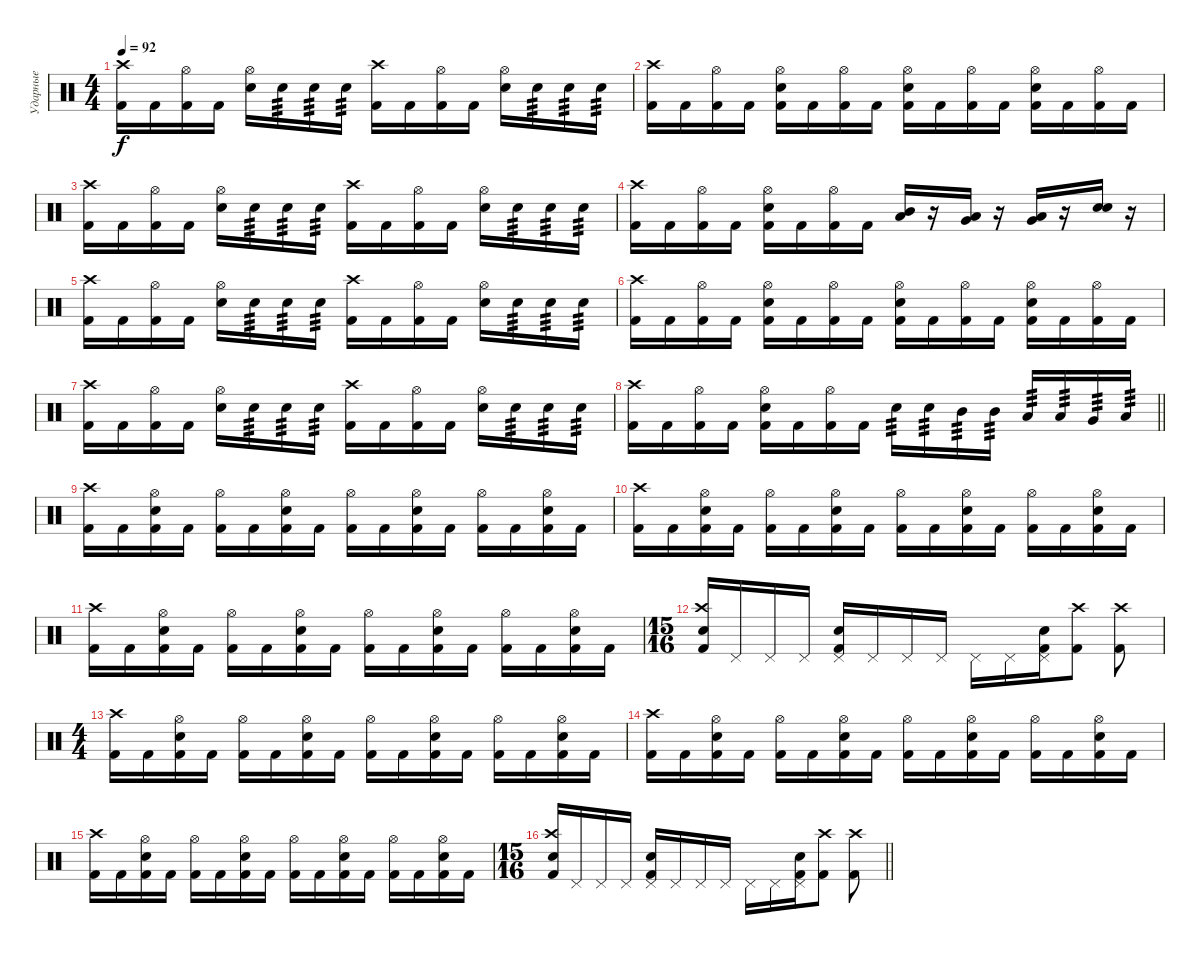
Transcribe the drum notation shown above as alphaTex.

\track ("Ударные" "Ударные") {instrument percussion}
\staff {score}
\articulation defaults
\ts (4 4)
\section ("" "")
\tempo 92
\clef neutral
\ks c
("Kick (hit) 2" "Crash high (hit)").16{dy f} "Kick (hit) 2".16 ("Kick (hit) 2" "Hi-Hat (open)").16 "Kick (hit) 2".16 ("Electric Snare (hit)" "Hi-Hat (open)").16 "Electric Snare (hit)".16{tp 3} "Electric Snare (hit)".16{tp 3} "Electric Snare (hit)".16{tp 3} ("Kick (hit) 2" "Crash high (hit)").16 "Kick (hit) 2".16 ("Kick (hit) 2" "Hi-Hat (open)").16 "Kick (hit) 2".16 ("Electric Snare (hit)" "Hi-Hat (open)").16 "Electric Snare (hit)".16{tp 3} "Electric Snare (hit)".16{tp 3} "Electric Snare (hit)".16{tp 3} |
("Kick (hit) 2" "Crash high (hit)").16 "Kick (hit) 2".16 ("Kick (hit) 2" "Hi-Hat (open)").16 "Kick (hit) 2".16 ("Kick (hit) 2" "Hi-Hat (open)" "Electric Snare (hit)").16 "Kick (hit) 2".16 ("Kick (hit) 2" "Hi-Hat (open)").16 "Kick (hit) 2".16 ("Kick (hit) 2" "Hi-Hat (open)" "Electric Snare (hit)").16 "Kick (hit) 2".16 ("Kick (hit) 2" "Hi-Hat (open)").16 "Kick (hit) 2".16 ("Kick (hit) 2" "Hi-Hat (open)" "Electric Snare (hit)").16 "Kick (hit) 2".16 ("Kick (hit) 2" "Hi-Hat (open)").16 "Kick (hit) 2".16 |
("Kick (hit) 2" "Crash high (hit)").16 "Kick (hit) 2".16 ("Kick (hit) 2" "Hi-Hat (open)").16 "Kick (hit) 2".16 ("Electric Snare (hit)" "Hi-Hat (open)").16 "Electric Snare (hit)".16{tp 3} "Electric Snare (hit)".16{tp 3} "Electric Snare (hit)".16{tp 3} ("Kick (hit) 2" "Crash high (hit)").16 "Kick (hit) 2".16 ("Kick (hit) 2" "Hi-Hat (open)").16 "Kick (hit) 2".16 ("Electric Snare (hit)" "Hi-Hat (open)").16 "Electric Snare (hit)".16{tp 3} "Electric Snare (hit)".16{tp 3} "Electric Snare (hit)".16{tp 3} |
("Kick (hit) 2" "Crash high (hit)").16 "Kick (hit) 2".16 ("Kick (hit) 2" "Hi-Hat (open)").16 "Kick (hit) 2".16 ("Kick (hit) 2" "Hi-Hat (open)" "Electric Snare (hit)").16 "Kick (hit) 2".16 ("Kick (hit) 2" "Hi-Hat (open)").16 "Kick (hit) 2".16 ("Mid Tom (hit)" "Low Tom (hit)").16{bd 120} r.16 ("Low Tom (hit)" "Very Low Tom (hit)").16{bd 120} r.16 ("Very Low Tom (hit)" "Low Floor Tom (hit)").16{bd 120} r.16 ("Electric Snare (hit)" "Electric Snare (hit)").16{bd 120} r.16 |
("Kick (hit) 2" "Crash high (hit)").16 "Kick (hit) 2".16 ("Kick (hit) 2" "Hi-Hat (open)").16 "Kick (hit) 2".16 ("Electric Snare (hit)" "Hi-Hat (open)").16 "Electric Snare (hit)".16{tp 3} "Electric Snare (hit)".16{tp 3} "Electric Snare (hit)".16{tp 3} ("Kick (hit) 2" "Crash high (hit)").16 "Kick (hit) 2".16 ("Kick (hit) 2" "Hi-Hat (open)").16 "Kick (hit) 2".16 ("Electric Snare (hit)" "Hi-Hat (open)").16 "Electric Snare (hit)".16{tp 3} "Electric Snare (hit)".16{tp 3} "Electric Snare (hit)".16{tp 3} |
("Kick (hit) 2" "Crash high (hit)").16 "Kick (hit) 2".16 ("Kick (hit) 2" "Hi-Hat (open)").16 "Kick (hit) 2".16 ("Kick (hit) 2" "Hi-Hat (open)" "Electric Snare (hit)").16 "Kick (hit) 2".16 ("Kick (hit) 2" "Hi-Hat (open)").16 "Kick (hit) 2".16 ("Kick (hit) 2" "Hi-Hat (open)" "Electric Snare (hit)").16 "Kick (hit) 2".16 ("Kick (hit) 2" "Hi-Hat (open)").16 "Kick (hit) 2".16 ("Kick (hit) 2" "Hi-Hat (open)" "Electric Snare (hit)").16 "Kick (hit) 2".16 ("Kick (hit) 2" "Hi-Hat (open)").16 "Kick (hit) 2".16 |
("Kick (hit) 2" "Crash high (hit)").16 "Kick (hit) 2".16 ("Kick (hit) 2" "Hi-Hat (open)").16 "Kick (hit) 2".16 ("Electric Snare (hit)" "Hi-Hat (open)").16 "Electric Snare (hit)".16{tp 3} "Electric Snare (hit)".16{tp 3} "Electric Snare (hit)".16{tp 3} ("Kick (hit) 2" "Crash high (hit)").16 "Kick (hit) 2".16 ("Kick (hit) 2" "Hi-Hat (open)").16 "Kick (hit) 2".16 ("Electric Snare (hit)" "Hi-Hat (open)").16 "Electric Snare (hit)".16{tp 3} "Electric Snare (hit)".16{tp 3} "Electric Snare (hit)".16{tp 3} |
\barLineRight lightlight
("Kick (hit) 2" "Crash high (hit)").16 "Kick (hit) 2".16 ("Kick (hit) 2" "Hi-Hat (open)").16 "Kick (hit) 2".16 ("Kick (hit) 2" "Hi-Hat (open)" "Electric Snare (hit)").16 "Kick (hit) 2".16 ("Kick (hit) 2" "Hi-Hat (open)").16 "Kick (hit) 2".16 "Electric Snare (hit)".16{tp 3} "Electric Snare (hit)".16{tp 3} "Mid Tom (hit)".16{tp 3} "Mid Tom (hit)".16{tp 3} "Low Tom (hit)".16{tp 3} "Low Tom (hit)".16{tp 3} "Very Low Tom (hit)".16{tp 3} "Low Floor Tom (hit)".16{tp 3} |
\section ("" "")
("Kick (hit) 2" "Crash high (hit)").16 "Kick (hit) 2".16 ("Kick (hit) 2" "Hi-Hat (open)" "Electric Snare (hit)").16 "Kick (hit) 2".16 ("Kick (hit) 2" "Hi-Hat (open)").16 "Kick (hit) 2".16 ("Kick (hit) 2" "Hi-Hat (open)" "Electric Snare (hit)").16 "Kick (hit) 2".16 ("Kick (hit) 2" "Hi-Hat (open)").16 "Kick (hit) 2".16 ("Kick (hit) 2" "Hi-Hat (open)" "Electric Snare (hit)").16 "Kick (hit) 2".16 ("Kick (hit) 2" "Hi-Hat (open)").16 "Kick (hit) 2".16 ("Kick (hit) 2" "Hi-Hat (open)" "Electric Snare (hit)").16 "Kick (hit) 2".16 |
("Kick (hit) 2" "Crash high (hit)").16 "Kick (hit) 2".16 ("Kick (hit) 2" "Hi-Hat (open)" "Electric Snare (hit)").16 "Kick (hit) 2".16 ("Kick (hit) 2" "Hi-Hat (open)").16 "Kick (hit) 2".16 ("Kick (hit) 2" "Hi-Hat (open)" "Electric Snare (hit)").16 "Kick (hit) 2".16 ("Kick (hit) 2" "Hi-Hat (open)").16 "Kick (hit) 2".16 ("Kick (hit) 2" "Hi-Hat (open)" "Electric Snare (hit)").16 "Kick (hit) 2".16 ("Kick (hit) 2" "Hi-Hat (open)").16 "Kick (hit) 2".16 ("Kick (hit) 2" "Hi-Hat (open)" "Electric Snare (hit)").16 "Kick (hit) 2".16 |
("Kick (hit) 2" "Crash high (hit)").16 "Kick (hit) 2".16 ("Kick (hit) 2" "Hi-Hat (open)" "Electric Snare (hit)").16 "Kick (hit) 2".16 ("Kick (hit) 2" "Hi-Hat (open)").16 "Kick (hit) 2".16 ("Kick (hit) 2" "Hi-Hat (open)" "Electric Snare (hit)").16 "Kick (hit) 2".16 ("Kick (hit) 2" "Hi-Hat (open)").16 "Kick (hit) 2".16 ("Kick (hit) 2" "Hi-Hat (open)" "Electric Snare (hit)").16 "Kick (hit) 2".16 ("Kick (hit) 2" "Hi-Hat (open)").16 "Kick (hit) 2".16 ("Kick (hit) 2" "Hi-Hat (open)" "Electric Snare (hit)").16 "Kick (hit) 2".16 |
\ts (15 16)
("Crash high (hit)" "Kick (hit) 2" "Electric Snare (hit)").16 "Pedal Hi-Hat (hit)".16 "Pedal Hi-Hat (hit)".16 "Pedal Hi-Hat (hit)".16 ("Pedal Hi-Hat (hit)" "Kick (hit) 2" "Electric Snare (hit)").16 "Pedal Hi-Hat (hit)".16 "Pedal Hi-Hat (hit)".16 "Pedal Hi-Hat (hit)".16 "Pedal Hi-Hat (hit)".16 "Pedal Hi-Hat (hit)".16 ("Pedal Hi-Hat (hit)" "Kick (hit) 2" "Electric Snare (hit)").16 ("Crash high (hit)" "Kick (hit) 2").8 ("Crash high (hit)" "Kick (hit) 2").8 |
\ts (4 4)
("Kick (hit) 2" "Crash high (hit)").16 "Kick (hit) 2".16 ("Kick (hit) 2" "Hi-Hat (open)" "Electric Snare (hit)").16 "Kick (hit) 2".16 ("Kick (hit) 2" "Hi-Hat (open)").16 "Kick (hit) 2".16 ("Kick (hit) 2" "Hi-Hat (open)" "Electric Snare (hit)").16 "Kick (hit) 2".16 ("Kick (hit) 2" "Hi-Hat (open)").16 "Kick (hit) 2".16 ("Kick (hit) 2" "Hi-Hat (open)" "Electric Snare (hit)").16 "Kick (hit) 2".16 ("Kick (hit) 2" "Hi-Hat (open)").16 "Kick (hit) 2".16 ("Kick (hit) 2" "Hi-Hat (open)" "Electric Snare (hit)").16 "Kick (hit) 2".16 |
("Kick (hit) 2" "Crash high (hit)").16 "Kick (hit) 2".16 ("Kick (hit) 2" "Hi-Hat (open)" "Electric Snare (hit)").16 "Kick (hit) 2".16 ("Kick (hit) 2" "Hi-Hat (open)").16 "Kick (hit) 2".16 ("Kick (hit) 2" "Hi-Hat (open)" "Electric Snare (hit)").16 "Kick (hit) 2".16 ("Kick (hit) 2" "Hi-Hat (open)").16 "Kick (hit) 2".16 ("Kick (hit) 2" "Hi-Hat (open)" "Electric Snare (hit)").16 "Kick (hit) 2".16 ("Kick (hit) 2" "Hi-Hat (open)").16 "Kick (hit) 2".16 ("Kick (hit) 2" "Hi-Hat (open)" "Electric Snare (hit)").16 "Kick (hit) 2".16 |
("Kick (hit) 2" "Crash high (hit)").16 "Kick (hit) 2".16 ("Kick (hit) 2" "Hi-Hat (open)" "Electric Snare (hit)").16 "Kick (hit) 2".16 ("Kick (hit) 2" "Hi-Hat (open)").16 "Kick (hit) 2".16 ("Kick (hit) 2" "Hi-Hat (open)" "Electric Snare (hit)").16 "Kick (hit) 2".16 ("Kick (hit) 2" "Hi-Hat (open)").16 "Kick (hit) 2".16 ("Kick (hit) 2" "Hi-Hat (open)" "Electric Snare (hit)").16 "Kick (hit) 2".16 ("Kick (hit) 2" "Hi-Hat (open)").16 "Kick (hit) 2".16 ("Kick (hit) 2" "Hi-Hat (open)" "Electric Snare (hit)").16 "Kick (hit) 2".16 |
\ts (15 16)
\barLineRight lightlight
("Crash high (hit)" "Kick (hit) 2" "Electric Snare (hit)").16 "Pedal Hi-Hat (hit)".16 "Pedal Hi-Hat (hit)".16 "Pedal Hi-Hat (hit)".16 ("Pedal Hi-Hat (hit)" "Kick (hit) 2" "Electric Snare (hit)").16 "Pedal Hi-Hat (hit)".16 "Pedal Hi-Hat (hit)".16 "Pedal Hi-Hat (hit)".16 "Pedal Hi-Hat (hit)".16 "Pedal Hi-Hat (hit)".16 ("Pedal Hi-Hat (hit)" "Kick (hit) 2" "Electric Snare (hit)").16 ("Crash high (hit)" "Kick (hit) 2").8 ("Crash high (hit)" "Kick (hit) 2").8
